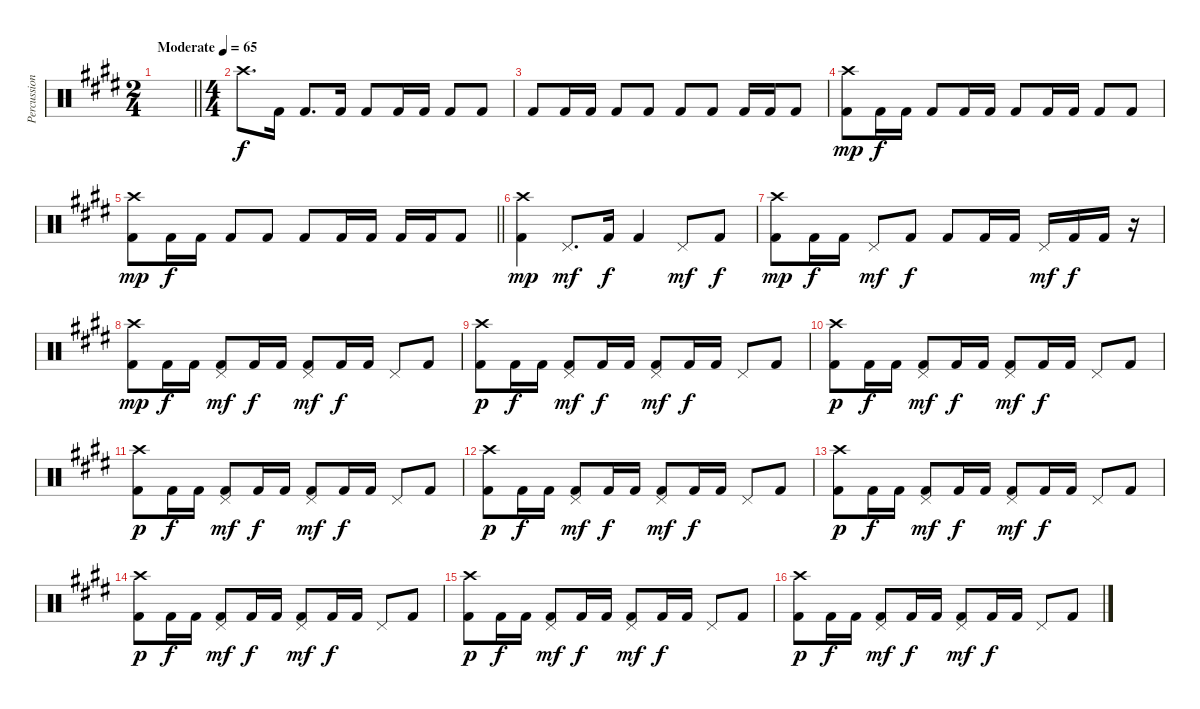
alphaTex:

\track ("Percussion" "Percussion") {instrument percussion}
\staff {score}
\articulation defaults
\ts (2 4)
\tempo (65 "Moderate")
\clef neutral
\barLineRight lightlight
\ks e
|
\ts (4 4)
"Crash high (hit)".8{d} "Kick (hit) 2".16{dy f} "Kick (hit) 2".8{d} "Kick (hit) 2".16 "Kick (hit) 2".8 "Kick (hit) 2".16 "Kick (hit) 2".16 "Kick (hit) 2".8 "Kick (hit) 2".8 |
"Kick (hit) 2".8 "Kick (hit) 2".16 "Kick (hit) 2".16 "Kick (hit) 2".8 "Kick (hit) 2".8 "Kick (hit) 2".8 "Kick (hit) 2".8 "Kick (hit) 2".16 "Kick (hit) 2".16 "Kick (hit) 2".8 |
("Crash high (hit)" "Kick (hit) 2").8{dy mp} "Kick (hit) 2".16{dy f} "Kick (hit) 2".16 "Kick (hit) 2".8 "Kick (hit) 2".16 "Kick (hit) 2".16 "Kick (hit) 2".8 "Kick (hit) 2".16 "Kick (hit) 2".16 "Kick (hit) 2".8 "Kick (hit) 2".8 |
\barLineRight lightlight
("Crash high (hit)" "Kick (hit) 2").8{dy mp} "Kick (hit) 2".16{dy f} "Kick (hit) 2".16 "Kick (hit) 2".8 "Kick (hit) 2".8 "Kick (hit) 2".8 "Kick (hit) 2".16 "Kick (hit) 2".16 "Kick (hit) 2".16 "Kick (hit) 2".16 "Kick (hit) 2".8 |
("Crash high (hit)" "Kick (hit) 2").4{dy mp} "Pedal Hi-Hat (hit)".8{d dy mf} "Kick (hit) 2".16{dy f} "Kick (hit) 2".4 "Pedal Hi-Hat (hit)".8{dy mf} "Kick (hit) 2".8{dy f} |
("Crash high (hit)" "Kick (hit) 2").8{dy mp} "Kick (hit) 2".16{dy f} "Kick (hit) 2".16 "Pedal Hi-Hat (hit)".8{dy mf} "Kick (hit) 2".8{dy f} "Kick (hit) 2".8 "Kick (hit) 2".16 "Kick (hit) 2".16 "Pedal Hi-Hat (hit)".16{dy mf} "Kick (hit) 2".16{dy f} "Kick (hit) 2".16 r.16 |
("Crash high (hit)" "Kick (hit) 2").8{dy mp} "Kick (hit) 2".16{dy f} "Kick (hit) 2".16 ("Pedal Hi-Hat (hit)" "Kick (hit) 2").8{dy mf} "Kick (hit) 2".16{dy f} "Kick (hit) 2".16 ("Pedal Hi-Hat (hit)" "Kick (hit) 2").8{dy mf} "Kick (hit) 2".16{dy f} "Kick (hit) 2".16 "Pedal Hi-Hat (hit)".8 "Kick (hit) 2".8 |
("Crash high (hit)" "Kick (hit) 2").8{dy p} "Kick (hit) 2".16{dy f} "Kick (hit) 2".16 ("Pedal Hi-Hat (hit)" "Kick (hit) 2").8{dy mf} "Kick (hit) 2".16{dy f} "Kick (hit) 2".16 ("Pedal Hi-Hat (hit)" "Kick (hit) 2").8{dy mf} "Kick (hit) 2".16{dy f} "Kick (hit) 2".16 "Pedal Hi-Hat (hit)".8 "Kick (hit) 2".8 |
("Crash high (hit)" "Kick (hit) 2").8{dy p} "Kick (hit) 2".16{dy f} "Kick (hit) 2".16 ("Pedal Hi-Hat (hit)" "Kick (hit) 2").8{dy mf} "Kick (hit) 2".16{dy f} "Kick (hit) 2".16 ("Pedal Hi-Hat (hit)" "Kick (hit) 2").8{dy mf} "Kick (hit) 2".16{dy f} "Kick (hit) 2".16 "Pedal Hi-Hat (hit)".8 "Kick (hit) 2".8 |
("Crash high (hit)" "Kick (hit) 2").8{dy p} "Kick (hit) 2".16{dy f} "Kick (hit) 2".16 ("Pedal Hi-Hat (hit)" "Kick (hit) 2").8{dy mf} "Kick (hit) 2".16{dy f} "Kick (hit) 2".16 ("Pedal Hi-Hat (hit)" "Kick (hit) 2").8{dy mf} "Kick (hit) 2".16{dy f} "Kick (hit) 2".16 "Pedal Hi-Hat (hit)".8 "Kick (hit) 2".8 |
("Crash high (hit)" "Kick (hit) 2").8{dy p} "Kick (hit) 2".16{dy f} "Kick (hit) 2".16 ("Pedal Hi-Hat (hit)" "Kick (hit) 2").8{dy mf} "Kick (hit) 2".16{dy f} "Kick (hit) 2".16 ("Pedal Hi-Hat (hit)" "Kick (hit) 2").8{dy mf} "Kick (hit) 2".16{dy f} "Kick (hit) 2".16 "Pedal Hi-Hat (hit)".8 "Kick (hit) 2".8 |
("Crash high (hit)" "Kick (hit) 2").8{dy p} "Kick (hit) 2".16{dy f} "Kick (hit) 2".16 ("Pedal Hi-Hat (hit)" "Kick (hit) 2").8{dy mf} "Kick (hit) 2".16{dy f} "Kick (hit) 2".16 ("Pedal Hi-Hat (hit)" "Kick (hit) 2").8{dy mf} "Kick (hit) 2".16{dy f} "Kick (hit) 2".16 "Pedal Hi-Hat (hit)".8 "Kick (hit) 2".8 |
("Crash high (hit)" "Kick (hit) 2").8{dy p} "Kick (hit) 2".16{dy f} "Kick (hit) 2".16 ("Pedal Hi-Hat (hit)" "Kick (hit) 2").8{dy mf} "Kick (hit) 2".16{dy f} "Kick (hit) 2".16 ("Pedal Hi-Hat (hit)" "Kick (hit) 2").8{dy mf} "Kick (hit) 2".16{dy f} "Kick (hit) 2".16 "Pedal Hi-Hat (hit)".8 "Kick (hit) 2".8 |
("Crash high (hit)" "Kick (hit) 2").8{dy p} "Kick (hit) 2".16{dy f} "Kick (hit) 2".16 ("Pedal Hi-Hat (hit)" "Kick (hit) 2").8{dy mf} "Kick (hit) 2".16{dy f} "Kick (hit) 2".16 ("Pedal Hi-Hat (hit)" "Kick (hit) 2").8{dy mf} "Kick (hit) 2".16{dy f} "Kick (hit) 2".16 "Pedal Hi-Hat (hit)".8 "Kick (hit) 2".8 |
("Crash high (hit)" "Kick (hit) 2").8{dy p} "Kick (hit) 2".16{dy f} "Kick (hit) 2".16 ("Pedal Hi-Hat (hit)" "Kick (hit) 2").8{dy mf} "Kick (hit) 2".16{dy f} "Kick (hit) 2".16 ("Pedal Hi-Hat (hit)" "Kick (hit) 2").8{dy mf} "Kick (hit) 2".16{dy f} "Kick (hit) 2".16 "Pedal Hi-Hat (hit)".8 "Kick (hit) 2".8
